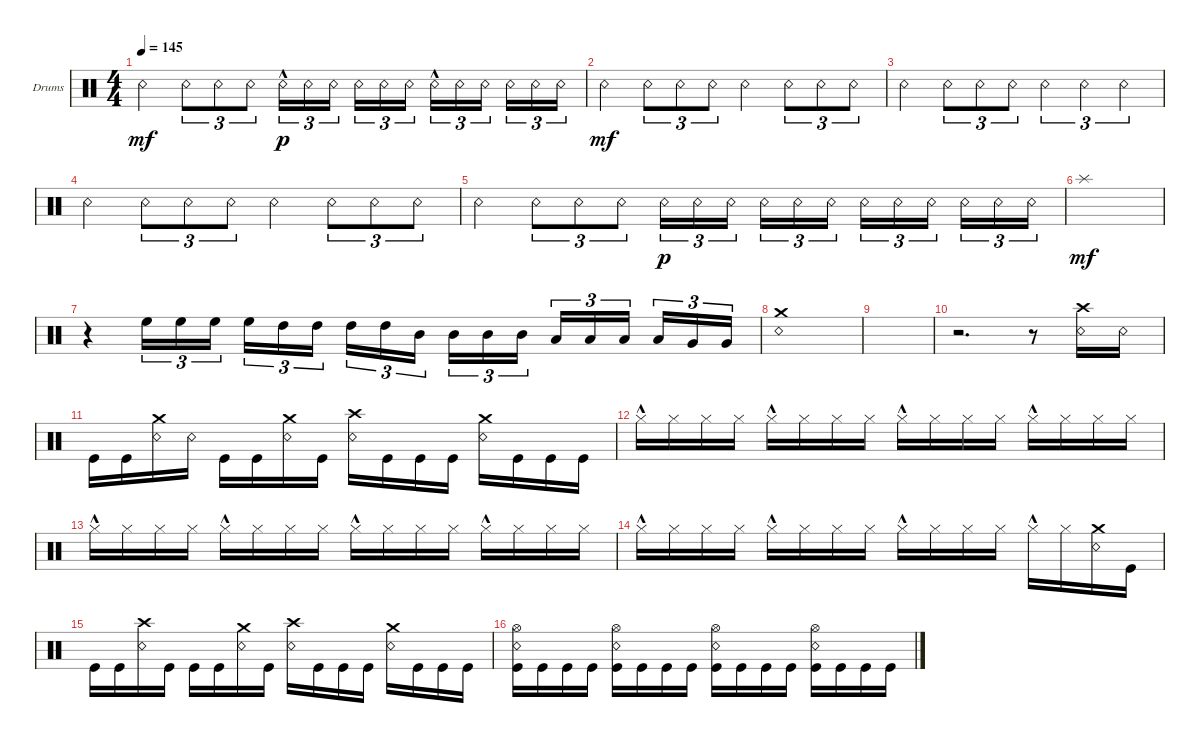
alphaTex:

\defaultSystemsLayout 4
\bracketExtendMode groupsimilarinstruments
\firstSystemTrackNameOrientation horizontal
\otherSystemsTrackNameOrientation horizontal
\track ("Drumkit" "Drums") {instrument percussion}
\staff {score}
\articulation defaults
\ts (4 4)
\tempo 145
\clef neutral
\ks c "Snare (rim shot)".4{dy mf} "Snare (rim shot)".8{tu (3 2)} "Snare (rim shot)".8{tu (3 2)} "Snare (rim shot)".8{tu (3 2)} "Snare (rim shot)"{hac}.16{tu (3 2) dy p} "Snare (rim shot)".16{tu (3 2)} "Snare (rim shot)".16{tu (3 2)} "Snare (rim shot)".16{tu (3 2)} "Snare (rim shot)".16{tu (3 2)} "Snare (rim shot)".16{tu (3 2)} "Snare (rim shot)"{hac}.16{tu (3 2)} "Snare (rim shot)".16{tu (3 2)} "Snare (rim shot)".16{tu (3 2)} "Snare (rim shot)".16{tu (3 2)} "Snare (rim shot)".16{tu (3 2)} "Snare (rim shot)".16{tu (3 2)}
|
"Snare (rim shot)".4{dy mf} "Snare (rim shot)".8{tu (3 2)} "Snare (rim shot)".8{tu (3 2)} "Snare (rim shot)".8{tu (3 2)} "Snare (rim shot)".4 "Snare (rim shot)".8{tu (3 2)} "Snare (rim shot)".8{tu (3 2)} "Snare (rim shot)".8{tu (3 2)} |
"Snare (rim shot)".4 "Snare (rim shot)".8{tu (3 2)} "Snare (rim shot)".8{tu (3 2)} "Snare (rim shot)".8{tu (3 2)} "Snare (rim shot)".4{tu (3 2)} "Snare (rim shot)".4{tu (3 2)} "Snare (rim shot)".4{tu (3 2)} |
"Snare (rim shot)".4 "Snare (rim shot)".8{tu (3 2)} "Snare (rim shot)".8{tu (3 2)} "Snare (rim shot)".8{tu (3 2)} "Snare (rim shot)".4 "Snare (rim shot)".8{tu (3 2)} "Snare (rim shot)".8{tu (3 2)} "Snare (rim shot)".8{tu (3 2)} |
"Snare (rim shot)".4 "Snare (rim shot)".8{tu (3 2)} "Snare (rim shot)".8{tu (3 2)} "Snare (rim shot)".8{tu (3 2)} "Snare (rim shot)".16{tu (3 2) dy p} "Snare (rim shot)".16{tu (3 2)} "Snare (rim shot)".16{tu (3 2)} "Snare (rim shot)".16{tu (3 2)} "Snare (rim shot)".16{tu (3 2)} "Snare (rim shot)".16{tu (3 2)} "Snare (rim shot)".16{tu (3 2)} "Snare (rim shot)".16{tu (3 2)} "Snare (rim shot)".16{tu (3 2)} "Snare (rim shot)".16{tu (3 2)} "Snare (rim shot)".16{tu (3 2)} "Snare (rim shot)".16{tu (3 2)} |
"Splash (hit)".1{dy mf} |
r.4 "High Floor Tom (hit)".16{tu (3 2)} "High Floor Tom (hit)".16{tu (3 2)} "High Floor Tom (hit)".16{tu (3 2)} "High Floor Tom (hit)".16{tu (3 2)} "High Tom (hit)".16{tu (3 2)} "High Tom (hit)".16{tu (3 2)} "High Tom (hit)".16{tu (3 2)} "High Tom (hit)".16{tu (3 2)} "Mid Tom (hit)".16{tu (3 2)} "Mid Tom (hit)".16{tu (3 2)} "Mid Tom (hit)".16{tu (3 2)} "Mid Tom (hit)".16{tu (3 2)} "Low Tom (hit)".16{tu (3 2)} "Low Tom (hit)".16{tu (3 2)} "Low Tom (hit)".16{tu (3 2)} "Low Tom (hit)".16{tu (3 2)} "Very Low Tom (hit)".16{tu (3 2)} "Very Low Tom (hit)".16{tu (3 2)} |
("Snare (rim shot)" "Crash medium (hit)").1 |
|
r.2{d} r.8 ("Snare (rim shot)" "Crash high (hit)").16 "Snare (rim shot)".16 |
"Kick (hit)".16 "Kick (hit)".16 ("Snare (rim shot)" "Crash medium (hit)").16 "Snare (rim shot)".16 "Kick (hit)".16 "Kick (hit)".16 ("Snare (rim shot)" "Crash medium (hit)").16 "Kick (hit)".16 ("Snare (rim shot)" "Crash high (hit)").16 "Kick (hit)".16 "Kick (hit)".16 "Kick (hit)".16 ("Snare (rim shot)" "Crash medium (hit)").16 "Kick (hit)".16 "Kick (hit)".16 "Kick (hit)".16 |
"Hi-Hat (closed)"{hac}.16 "Hi-Hat (closed)".16 "Hi-Hat (closed)".16 "Hi-Hat (closed)".16 "Hi-Hat (closed)"{hac}.16 "Hi-Hat (closed)".16 "Hi-Hat (closed)".16 "Hi-Hat (closed)".16 "Hi-Hat (closed)"{hac}.16 "Hi-Hat (closed)".16 "Hi-Hat (closed)".16 "Hi-Hat (closed)".16 "Hi-Hat (closed)"{hac}.16 "Hi-Hat (closed)".16 "Hi-Hat (closed)".16 "Hi-Hat (closed)".16 |
"Hi-Hat (closed)"{hac}.16 "Hi-Hat (closed)".16 "Hi-Hat (closed)".16 "Hi-Hat (closed)".16 "Hi-Hat (closed)"{hac}.16 "Hi-Hat (closed)".16 "Hi-Hat (closed)".16 "Hi-Hat (closed)".16 "Hi-Hat (closed)"{hac}.16 "Hi-Hat (closed)".16 "Hi-Hat (closed)".16 "Hi-Hat (closed)".16 "Hi-Hat (closed)"{hac}.16 "Hi-Hat (closed)".16 "Hi-Hat (closed)".16 "Hi-Hat (closed)".16 |
"Hi-Hat (closed)"{hac}.16 "Hi-Hat (closed)".16 "Hi-Hat (closed)".16 "Hi-Hat (closed)".16 "Hi-Hat (closed)"{hac}.16 "Hi-Hat (closed)".16 "Hi-Hat (closed)".16 "Hi-Hat (closed)".16 "Hi-Hat (closed)"{hac}.16 "Hi-Hat (closed)".16 "Hi-Hat (closed)".16 "Hi-Hat (closed)".16 "Hi-Hat (closed)"{hac}.16 "Hi-Hat (closed)".16 ("Snare (rim shot)" "Crash medium (hit)").16 "Kick (hit)".16 |
"Kick (hit)".16 "Kick (hit)".16 ("Snare (rim shot)" "Crash high (hit)").16 "Kick (hit)".16 "Kick (hit)".16 "Kick (hit)".16 ("Snare (rim shot)" "Crash medium (hit)").16 "Kick (hit)".16 ("Snare (rim shot)" "Crash high (hit)").16 "Kick (hit)".16 "Kick (hit)".16 "Kick (hit)".16 ("Snare (rim shot)" "Crash medium (hit)").16 "Kick (hit)".16 "Kick (hit)".16 "Kick (hit)".16 |
("Snare (rim shot)" "Kick (hit)" "Hi-Hat (open)").16 "Kick (hit)".16 "Kick (hit)".16 "Kick (hit)".16 ("Snare (rim shot)" "Kick (hit)" "Hi-Hat (open)").16 "Kick (hit)".16 "Kick (hit)".16 "Kick (hit)".16 ("Snare (rim shot)" "Kick (hit)" "Hi-Hat (open)").16 "Kick (hit)".16 "Kick (hit)".16 "Kick (hit)".16 ("Snare (rim shot)" "Kick (hit)" "Hi-Hat (open)").16 "Kick (hit)".16 "Kick (hit)".16 "Kick (hit)".16
